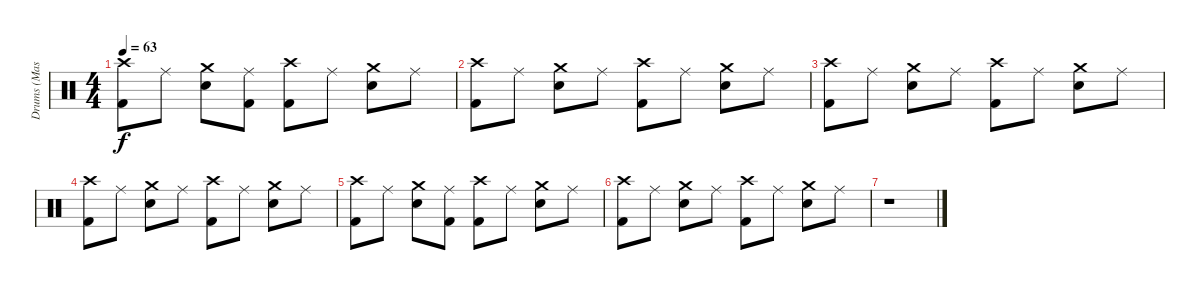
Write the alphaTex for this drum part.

\track ("Drums (Mason)" "Drums (Mas") {instrument percussion}
\staff {score}
\articulation defaults
\ts (4 4)
\tempo 63
\clef neutral
\ks c
("Crash high (hit)" "Kick (hit) 2").8{dy f} "Ride (middle)".8 ("Crash medium (hit)" "Snare (hit) 2").8 ("Ride (middle)" "Kick (hit) 2").8 ("Crash high (hit)" "Kick (hit) 2").8 "Ride (middle)".8 ("Crash medium (hit)" "Snare (hit) 2").8 "Ride (middle)".8 |
("Crash high (hit)" "Kick (hit) 2").8 "Ride (middle)".8 ("Crash medium (hit)" "Snare (hit) 2").8 "Ride (middle)".8 ("Crash high (hit)" "Kick (hit) 2").8 "Ride (middle)".8 ("Crash medium (hit)" "Snare (hit) 2").8 "Ride (middle)".8 |
("Crash high (hit)" "Kick (hit) 2").8 "Ride (middle)".8 ("Crash medium (hit)" "Snare (hit) 2").8 "Ride (middle)".8 ("Crash high (hit)" "Kick (hit) 2").8 "Ride (middle)".8 ("Crash medium (hit)" "Snare (hit) 2").8 "Ride (middle)".8 |
("Crash high (hit)" "Kick (hit) 2").8 "Ride (middle)".8 ("Crash medium (hit)" "Snare (hit) 2").8 "Ride (middle)".8 ("Crash high (hit)" "Kick (hit) 2").8 "Ride (middle)".8 ("Crash medium (hit)" "Snare (hit) 2").8 "Ride (middle)".8 |
("Crash high (hit)" "Kick (hit) 2").8 "Ride (middle)".8 ("Crash medium (hit)" "Snare (hit) 2").8 ("Ride (middle)" "Kick (hit) 2").8 ("Crash high (hit)" "Kick (hit) 2").8 "Ride (middle)".8 ("Crash medium (hit)" "Snare (hit) 2").8 "Ride (middle)".8 |
("Crash high (hit)" "Kick (hit) 2").8 "Ride (middle)".8 ("Crash medium (hit)" "Snare (hit) 2").8 "Ride (middle)".8 ("Crash high (hit)" "Kick (hit) 2").8 "Ride (middle)".8 ("Crash medium (hit)" "Snare (hit) 2").8 "Ride (middle)".8 |
r.1
